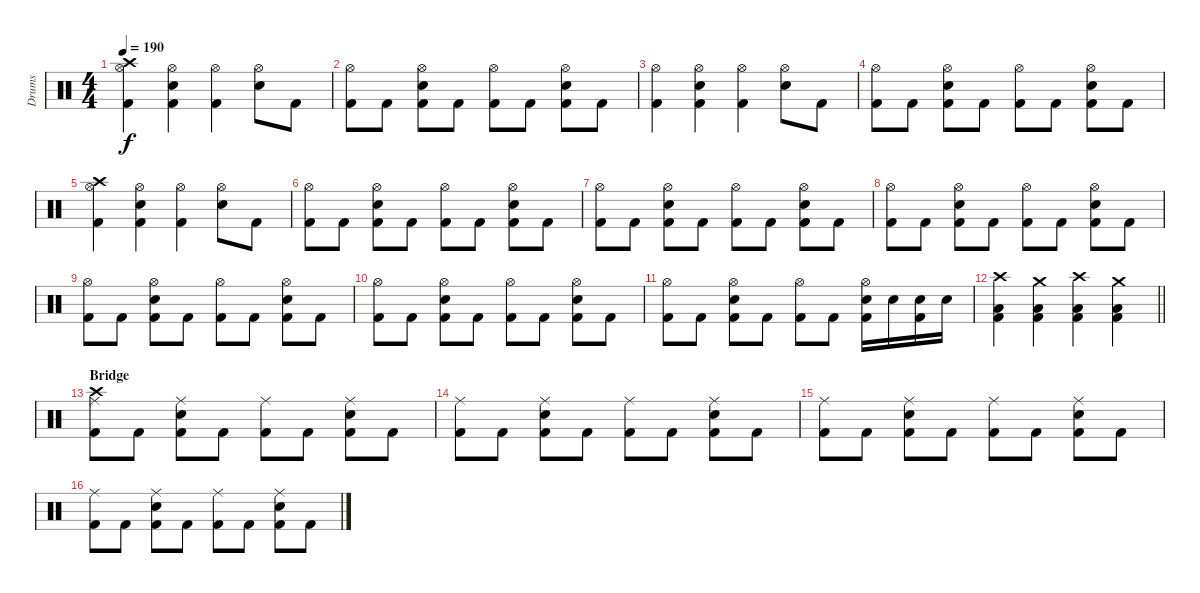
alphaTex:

\track ("Drums" "Drums") {instrument percussion}
\staff {score}
\articulation defaults
\ts (4 4)
\tempo 190
\clef neutral
\ks c
("Crash high (hit)" "Hi-Hat (open)" "Kick (hit) 2").4{dy f} ("Hi-Hat (open)" "Snare (hit) 2" "Kick (hit) 2").4 ("Hi-Hat (open)" "Kick (hit) 2").4 ("Hi-Hat (open)" "Snare (hit) 2").8 "Kick (hit) 2".8 |
("Hi-Hat (open)" "Kick (hit) 2").8 "Kick (hit) 2".8 ("Hi-Hat (open)" "Snare (hit) 2" "Kick (hit) 2").8 "Kick (hit) 2".8 ("Hi-Hat (open)" "Kick (hit) 2").8 "Kick (hit) 2".8 ("Hi-Hat (open)" "Snare (hit) 2" "Kick (hit) 2").8 "Kick (hit) 2".8 |
("Hi-Hat (open)" "Kick (hit) 2").4 ("Hi-Hat (open)" "Snare (hit) 2" "Kick (hit) 2").4 ("Hi-Hat (open)" "Kick (hit) 2").4 ("Hi-Hat (open)" "Snare (hit) 2").8 "Kick (hit) 2".8 |
("Hi-Hat (open)" "Kick (hit) 2").8 "Kick (hit) 2".8 ("Hi-Hat (open)" "Snare (hit) 2" "Kick (hit) 2").8 "Kick (hit) 2".8 ("Hi-Hat (open)" "Kick (hit) 2").8 "Kick (hit) 2".8 ("Hi-Hat (open)" "Snare (hit) 2" "Kick (hit) 2").8 "Kick (hit) 2".8 |
("Crash high (hit)" "Hi-Hat (open)" "Kick (hit) 2").4 ("Hi-Hat (open)" "Snare (hit) 2" "Kick (hit) 2").4 ("Hi-Hat (open)" "Kick (hit) 2").4 ("Hi-Hat (open)" "Snare (hit) 2").8 "Kick (hit) 2".8 |
("Hi-Hat (open)" "Kick (hit) 2").8 "Kick (hit) 2".8 ("Hi-Hat (open)" "Snare (hit) 2" "Kick (hit) 2").8 "Kick (hit) 2".8 ("Hi-Hat (open)" "Kick (hit) 2").8 "Kick (hit) 2".8 ("Hi-Hat (open)" "Snare (hit) 2" "Kick (hit) 2").8 "Kick (hit) 2".8 |
("Hi-Hat (open)" "Kick (hit) 2").8 "Kick (hit) 2".8 ("Hi-Hat (open)" "Snare (hit) 2" "Kick (hit) 2").8 "Kick (hit) 2".8 ("Hi-Hat (open)" "Kick (hit) 2").8 "Kick (hit) 2".8 ("Hi-Hat (open)" "Snare (hit) 2" "Kick (hit) 2").8 "Kick (hit) 2".8 |
("Hi-Hat (open)" "Kick (hit) 2").8 "Kick (hit) 2".8 ("Hi-Hat (open)" "Snare (hit) 2" "Kick (hit) 2").8 "Kick (hit) 2".8 ("Hi-Hat (open)" "Kick (hit) 2").8 "Kick (hit) 2".8 ("Hi-Hat (open)" "Snare (hit) 2" "Kick (hit) 2").8 "Kick (hit) 2".8 |
("Hi-Hat (open)" "Kick (hit) 2").8 "Kick (hit) 2".8 ("Hi-Hat (open)" "Snare (hit) 2" "Kick (hit) 2").8 "Kick (hit) 2".8 ("Hi-Hat (open)" "Kick (hit) 2").8 "Kick (hit) 2".8 ("Hi-Hat (open)" "Snare (hit) 2" "Kick (hit) 2").8 "Kick (hit) 2".8 |
("Hi-Hat (open)" "Kick (hit) 2").8 "Kick (hit) 2".8 ("Hi-Hat (open)" "Snare (hit) 2" "Kick (hit) 2").8 "Kick (hit) 2".8 ("Hi-Hat (open)" "Kick (hit) 2").8 "Kick (hit) 2".8 ("Hi-Hat (open)" "Snare (hit) 2" "Kick (hit) 2").8 "Kick (hit) 2".8 |
("Hi-Hat (open)" "Kick (hit) 2").8 "Kick (hit) 2".8 ("Hi-Hat (open)" "Snare (hit) 2" "Kick (hit) 2").8 "Kick (hit) 2".8 ("Hi-Hat (open)" "Kick (hit) 2").8 "Kick (hit) 2".8 ("Hi-Hat (open)" "Snare (hit) 2" "Kick (hit) 2").16 "Snare (hit) 2".16 ("Snare (hit) 2" "Kick (hit) 2").16 "Snare (hit) 2".16 |
\barLineRight lightlight
("Crash high (hit)" "Low Floor Tom (hit)" "Kick (hit) 2").4 ("Crash medium (hit)" "Low Floor Tom (hit)" "Kick (hit) 2").4 ("Crash high (hit)" "Low Floor Tom (hit)" "Kick (hit) 2").4 ("Crash medium (hit)" "Low Floor Tom (hit)" "Kick (hit) 2").4 |
\section ("" "Bridge")
("Crash high (hit)" "Ride (middle)" "Kick (hit) 2").8 "Kick (hit) 2".8 ("Ride (middle)" "Snare (hit) 2" "Kick (hit) 2").8 "Kick (hit) 2".8 ("Ride (middle)" "Kick (hit) 2").8 "Kick (hit) 2".8 ("Ride (middle)" "Snare (hit) 2" "Kick (hit) 2").8 "Kick (hit) 2".8 |
("Ride (middle)" "Kick (hit) 2").8 "Kick (hit) 2".8 ("Ride (middle)" "Snare (hit) 2" "Kick (hit) 2").8 "Kick (hit) 2".8 ("Ride (middle)" "Kick (hit) 2").8 "Kick (hit) 2".8 ("Ride (middle)" "Snare (hit) 2" "Kick (hit) 2").8 "Kick (hit) 2".8 |
("Ride (middle)" "Kick (hit) 2").8 "Kick (hit) 2".8 ("Ride (middle)" "Snare (hit) 2" "Kick (hit) 2").8 "Kick (hit) 2".8 ("Ride (middle)" "Kick (hit) 2").8 "Kick (hit) 2".8 ("Ride (middle)" "Snare (hit) 2" "Kick (hit) 2").8 "Kick (hit) 2".8 |
("Ride (middle)" "Kick (hit) 2").8 "Kick (hit) 2".8 ("Ride (middle)" "Snare (hit) 2" "Kick (hit) 2").8 "Kick (hit) 2".8 ("Ride (middle)" "Kick (hit) 2").8 "Kick (hit) 2".8 ("Ride (middle)" "Snare (hit) 2" "Kick (hit) 2").8 "Kick (hit) 2".8
